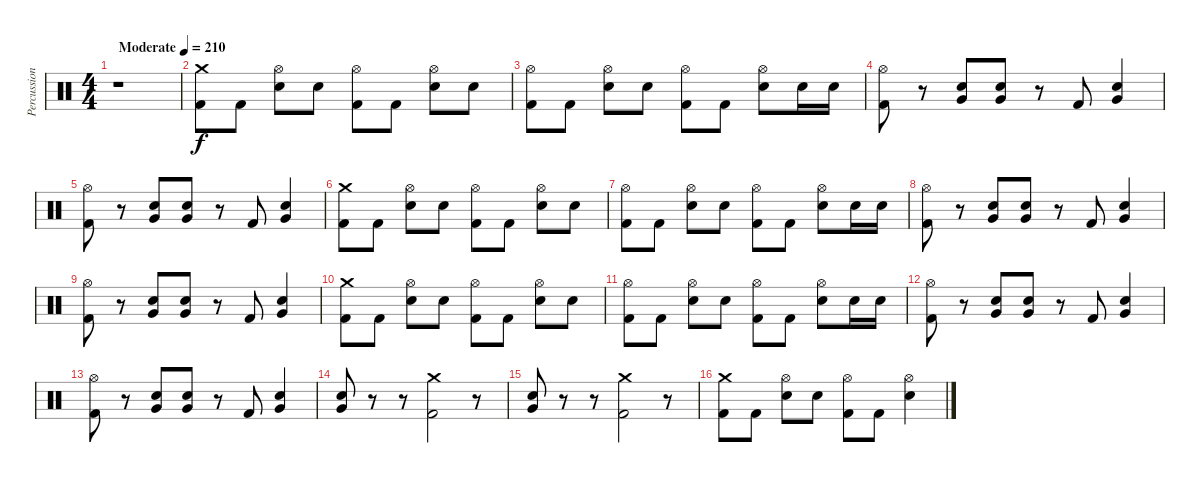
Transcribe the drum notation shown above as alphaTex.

\track ("Percussion" "Percussion") {instrument percussion}
\staff {score}
\articulation defaults
\ts (4 4)
\tempo (210 "Moderate")
\clef neutral
\ks c
r.1{dy f} |
("Crash medium (hit)" "Kick (hit) 2").8 "Kick (hit) 2".8 ("Hi-Hat (open)" "Electric Snare (hit)").8 "Electric Snare (hit)".8 ("Hi-Hat (open)" "Kick (hit) 2").8 "Kick (hit) 2".8 ("Hi-Hat (open)" "Electric Snare (hit)").8 "Electric Snare (hit)".8 |
("Hi-Hat (open)" "Kick (hit) 2").8 "Kick (hit) 2".8 ("Hi-Hat (open)" "Electric Snare (hit)").8 "Electric Snare (hit)".8 ("Hi-Hat (open)" "Kick (hit) 2").8 "Kick (hit) 2".8 ("Hi-Hat (open)" "Electric Snare (hit)").8 "Electric Snare (hit)".16 "Electric Snare (hit)".16 |
("Hi-Hat (open)" "Kick (hit) 2").8 r.8 ("Very Low Tom (hit)" "Electric Snare (hit)").8 ("Very Low Tom (hit)" "Electric Snare (hit)").8 r.8 "Kick (hit) 2".8 ("Very Low Tom (hit)" "Electric Snare (hit)").4 |
("Hi-Hat (open)" "Kick (hit) 2").8 r.8 ("Very Low Tom (hit)" "Electric Snare (hit)").8 ("Very Low Tom (hit)" "Electric Snare (hit)").8 r.8 "Kick (hit) 2".8 ("Very Low Tom (hit)" "Electric Snare (hit)").4 |
("Crash medium (hit)" "Kick (hit) 2").8 "Kick (hit) 2".8 ("Hi-Hat (open)" "Electric Snare (hit)").8 "Electric Snare (hit)".8 ("Hi-Hat (open)" "Kick (hit) 2").8 "Kick (hit) 2".8 ("Hi-Hat (open)" "Electric Snare (hit)").8 "Electric Snare (hit)".8 |
("Hi-Hat (open)" "Kick (hit) 2").8 "Kick (hit) 2".8 ("Hi-Hat (open)" "Electric Snare (hit)").8 "Electric Snare (hit)".8 ("Hi-Hat (open)" "Kick (hit) 2").8 "Kick (hit) 2".8 ("Hi-Hat (open)" "Electric Snare (hit)").8 "Electric Snare (hit)".16 "Electric Snare (hit)".16 |
("Hi-Hat (open)" "Kick (hit) 2").8 r.8 ("Very Low Tom (hit)" "Electric Snare (hit)").8 ("Very Low Tom (hit)" "Electric Snare (hit)").8 r.8 "Kick (hit) 2".8 ("Very Low Tom (hit)" "Electric Snare (hit)").4 |
("Hi-Hat (open)" "Kick (hit) 2").8 r.8 ("Very Low Tom (hit)" "Electric Snare (hit)").8 ("Very Low Tom (hit)" "Electric Snare (hit)").8 r.8 "Kick (hit) 2".8 ("Very Low Tom (hit)" "Electric Snare (hit)").4 |
("Crash medium (hit)" "Kick (hit) 2").8 "Kick (hit) 2".8 ("Hi-Hat (open)" "Electric Snare (hit)").8 "Electric Snare (hit)".8 ("Hi-Hat (open)" "Kick (hit) 2").8 "Kick (hit) 2".8 ("Hi-Hat (open)" "Electric Snare (hit)").8 "Electric Snare (hit)".8 |
("Hi-Hat (open)" "Kick (hit) 2").8 "Kick (hit) 2".8 ("Hi-Hat (open)" "Electric Snare (hit)").8 "Electric Snare (hit)".8 ("Hi-Hat (open)" "Kick (hit) 2").8 "Kick (hit) 2".8 ("Hi-Hat (open)" "Electric Snare (hit)").8 "Electric Snare (hit)".16 "Electric Snare (hit)".16 |
("Hi-Hat (open)" "Kick (hit) 2").8 r.8 ("Very Low Tom (hit)" "Electric Snare (hit)").8 ("Very Low Tom (hit)" "Electric Snare (hit)").8 r.8 "Kick (hit) 2".8 ("Very Low Tom (hit)" "Electric Snare (hit)").4 |
("Hi-Hat (open)" "Kick (hit) 2").8 r.8 ("Very Low Tom (hit)" "Electric Snare (hit)").8 ("Very Low Tom (hit)" "Electric Snare (hit)").8 r.8 "Kick (hit) 2".8 ("Very Low Tom (hit)" "Electric Snare (hit)").4 |
("Very Low Tom (hit)" "Electric Snare (hit)").8 r.8 r.8 ("Crash medium (hit)" "Kick (hit) 2").2 r.8 |
("Very Low Tom (hit)" "Electric Snare (hit)").8 r.8 r.8 ("Crash medium (hit)" "Kick (hit) 2").2 r.8 |
("Crash medium (hit)" "Kick (hit) 2").8 "Kick (hit) 2".8 ("Hi-Hat (open)" "Electric Snare (hit)").8 "Electric Snare (hit)".8 ("Hi-Hat (open)" "Kick (hit) 2").8 "Kick (hit) 2".8 ("Hi-Hat (open)" "Electric Snare (hit)").4
